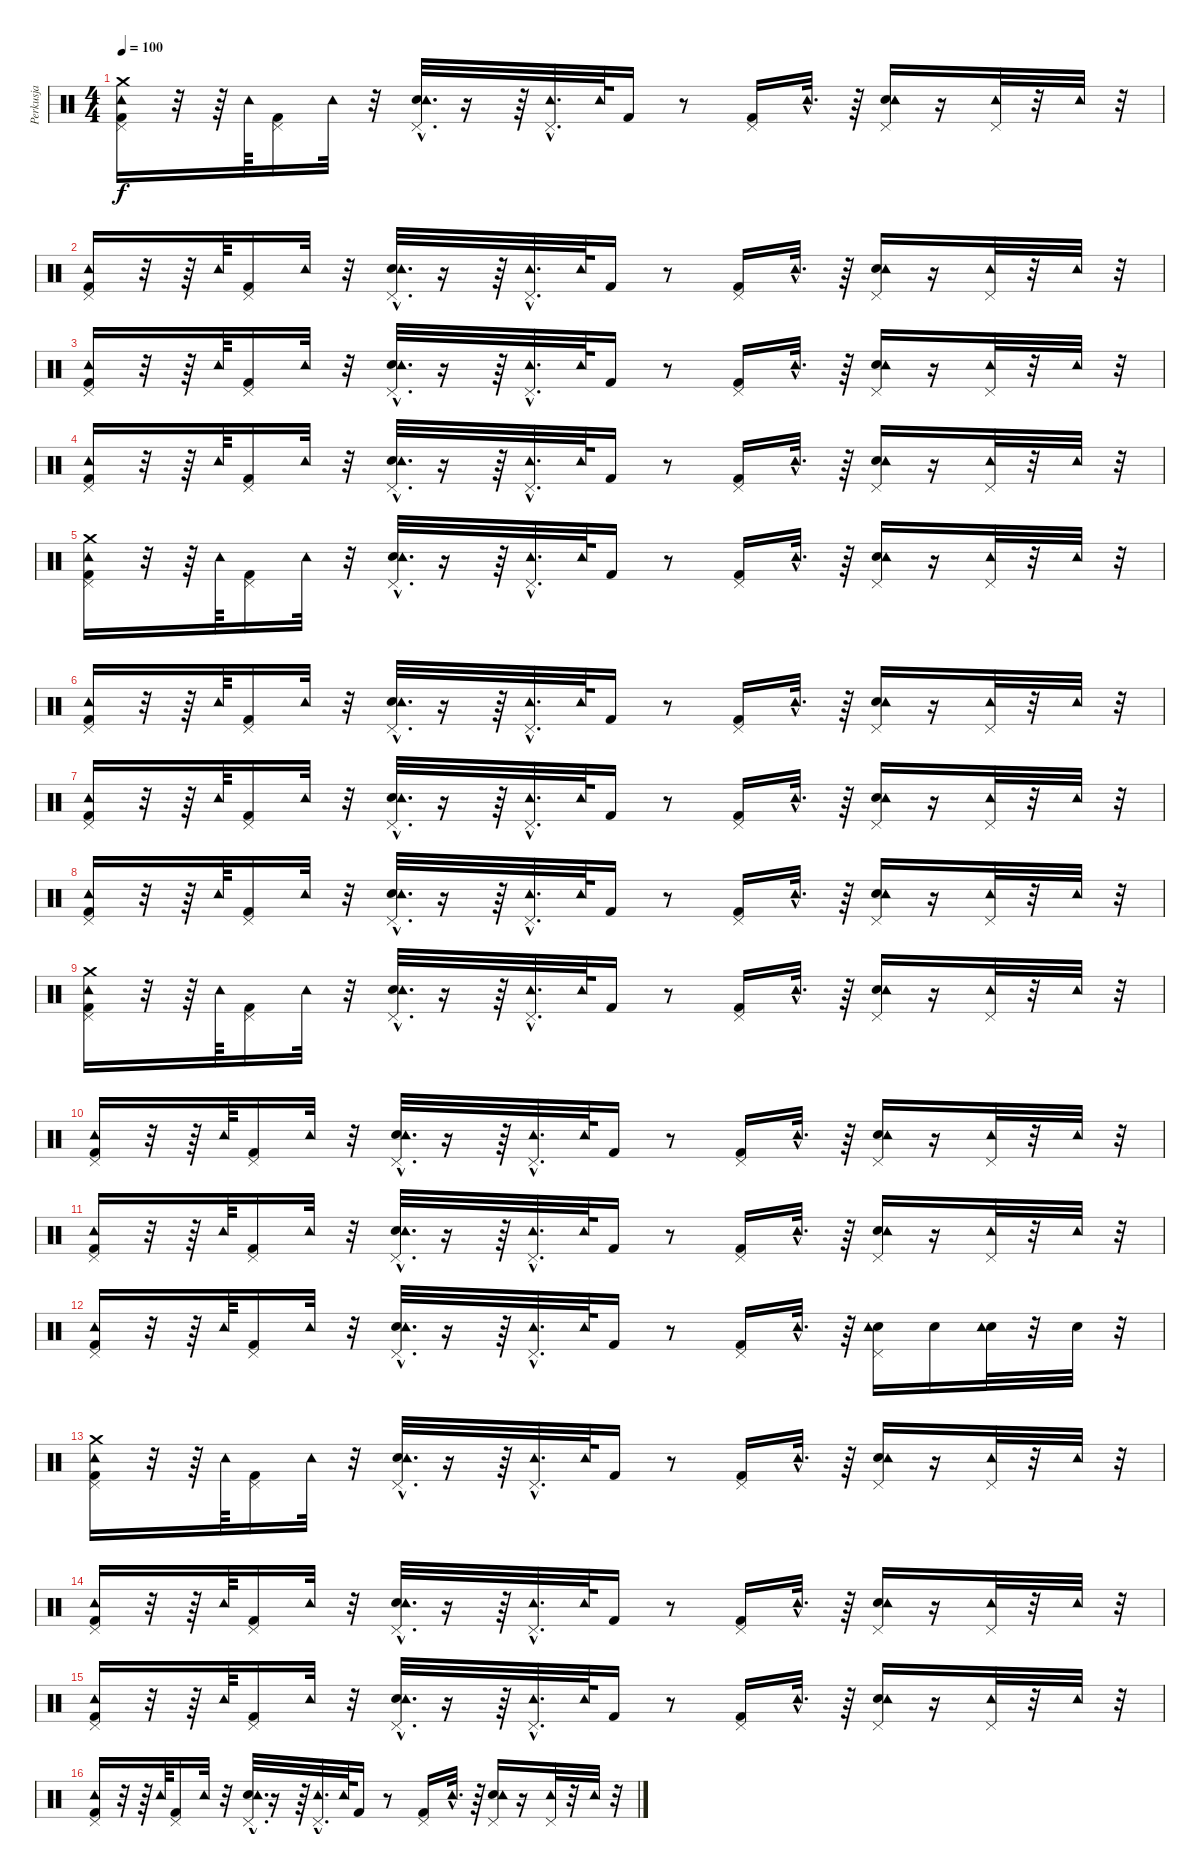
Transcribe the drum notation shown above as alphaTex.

\track ("Perkusja" "Perkusja") {instrument percussion}
\staff {score}
\articulation defaults
\ts (4 4)
\tempo 100
\clef neutral
\ks c
("Tambourine (hit)" "Pedal Hi-Hat (hit)" "Kick (hit) 2" "Crash medium (hit)").16{dy f} r.32 r.64 "Tambourine (hit)".64 ("Kick (hit) 2" "Pedal Hi-Hat (hit)").16 "Tambourine (hit)".32 r.32 ("Electric Snare (hit)"{hac} "Pedal Hi-Hat (hit)"{hac} "Tambourine (hit)"{hac}).32{d} r.16 r.64 ("Pedal Hi-Hat (hit)"{hac} "Tambourine (hit)"{hac}).32{d} "Tambourine (hit)".64 "Kick (hit) 2".16 r.8 ("Kick (hit) 2" "Pedal Hi-Hat (hit)").16 "Tambourine (hit)"{hac}.32{d} r.64 ("Electric Snare (hit)" "Pedal Hi-Hat (hit)" "Tambourine (hit)").16 r.16 ("Pedal Hi-Hat (hit)" "Tambourine (hit)").32 r.32 "Tambourine (hit)".32 r.32 |
("Tambourine (hit)" "Pedal Hi-Hat (hit)" "Kick (hit) 2").16 r.32 r.64 "Tambourine (hit)".64 ("Kick (hit) 2" "Pedal Hi-Hat (hit)").16 "Tambourine (hit)".32 r.32 ("Electric Snare (hit)"{hac} "Pedal Hi-Hat (hit)"{hac} "Tambourine (hit)"{hac}).32{d} r.16 r.64 ("Pedal Hi-Hat (hit)"{hac} "Tambourine (hit)"{hac}).32{d} "Tambourine (hit)".64 "Kick (hit) 2".16 r.8 ("Kick (hit) 2" "Pedal Hi-Hat (hit)").16 "Tambourine (hit)"{hac}.32{d} r.64 ("Electric Snare (hit)" "Pedal Hi-Hat (hit)" "Tambourine (hit)").16 r.16 ("Pedal Hi-Hat (hit)" "Tambourine (hit)").32 r.32 "Tambourine (hit)".32 r.32 |
("Tambourine (hit)" "Pedal Hi-Hat (hit)" "Kick (hit) 2").16 r.32 r.64 "Tambourine (hit)".64 ("Kick (hit) 2" "Pedal Hi-Hat (hit)").16 "Tambourine (hit)".32 r.32 ("Electric Snare (hit)"{hac} "Pedal Hi-Hat (hit)"{hac} "Tambourine (hit)"{hac}).32{d} r.16 r.64 ("Pedal Hi-Hat (hit)"{hac} "Tambourine (hit)"{hac}).32{d} "Tambourine (hit)".64 "Kick (hit) 2".16 r.8 ("Kick (hit) 2" "Pedal Hi-Hat (hit)").16 "Tambourine (hit)"{hac}.32{d} r.64 ("Electric Snare (hit)" "Pedal Hi-Hat (hit)" "Tambourine (hit)").16 r.16 ("Pedal Hi-Hat (hit)" "Tambourine (hit)").32 r.32 "Tambourine (hit)".32 r.32 |
("Tambourine (hit)" "Pedal Hi-Hat (hit)" "Kick (hit) 2").16 r.32 r.64 "Tambourine (hit)".64 ("Kick (hit) 2" "Pedal Hi-Hat (hit)").16 "Tambourine (hit)".32 r.32 ("Electric Snare (hit)"{hac} "Pedal Hi-Hat (hit)"{hac} "Tambourine (hit)"{hac}).32{d} r.16 r.64 ("Pedal Hi-Hat (hit)"{hac} "Tambourine (hit)"{hac}).32{d} "Tambourine (hit)".64 "Kick (hit) 2".16 r.8 ("Kick (hit) 2" "Pedal Hi-Hat (hit)").16 "Tambourine (hit)"{hac}.32{d} r.64 ("Electric Snare (hit)" "Pedal Hi-Hat (hit)" "Tambourine (hit)").16 r.16 ("Pedal Hi-Hat (hit)" "Tambourine (hit)").32 r.32 "Tambourine (hit)".32 r.32 |
("Tambourine (hit)" "Pedal Hi-Hat (hit)" "Kick (hit) 2" "Crash medium (hit)").16 r.32 r.64 "Tambourine (hit)".64 ("Kick (hit) 2" "Pedal Hi-Hat (hit)").16 "Tambourine (hit)".32 r.32 ("Electric Snare (hit)"{hac} "Pedal Hi-Hat (hit)"{hac} "Tambourine (hit)"{hac}).32{d} r.16 r.64 ("Pedal Hi-Hat (hit)"{hac} "Tambourine (hit)"{hac}).32{d} "Tambourine (hit)".64 "Kick (hit) 2".16 r.8 ("Kick (hit) 2" "Pedal Hi-Hat (hit)").16 "Tambourine (hit)"{hac}.32{d} r.64 ("Electric Snare (hit)" "Pedal Hi-Hat (hit)" "Tambourine (hit)").16 r.16 ("Pedal Hi-Hat (hit)" "Tambourine (hit)").32 r.32 "Tambourine (hit)".32 r.32 |
("Tambourine (hit)" "Pedal Hi-Hat (hit)" "Kick (hit) 2").16 r.32 r.64 "Tambourine (hit)".64 ("Kick (hit) 2" "Pedal Hi-Hat (hit)").16 "Tambourine (hit)".32 r.32 ("Electric Snare (hit)"{hac} "Pedal Hi-Hat (hit)"{hac} "Tambourine (hit)"{hac}).32{d} r.16 r.64 ("Pedal Hi-Hat (hit)"{hac} "Tambourine (hit)"{hac}).32{d} "Tambourine (hit)".64 "Kick (hit) 2".16 r.8 ("Kick (hit) 2" "Pedal Hi-Hat (hit)").16 "Tambourine (hit)"{hac}.32{d} r.64 ("Electric Snare (hit)" "Pedal Hi-Hat (hit)" "Tambourine (hit)").16 r.16 ("Pedal Hi-Hat (hit)" "Tambourine (hit)").32 r.32 "Tambourine (hit)".32 r.32 |
("Tambourine (hit)" "Pedal Hi-Hat (hit)" "Kick (hit) 2").16 r.32 r.64 "Tambourine (hit)".64 ("Kick (hit) 2" "Pedal Hi-Hat (hit)").16 "Tambourine (hit)".32 r.32 ("Electric Snare (hit)"{hac} "Pedal Hi-Hat (hit)"{hac} "Tambourine (hit)"{hac}).32{d} r.16 r.64 ("Pedal Hi-Hat (hit)"{hac} "Tambourine (hit)"{hac}).32{d} "Tambourine (hit)".64 "Kick (hit) 2".16 r.8 ("Kick (hit) 2" "Pedal Hi-Hat (hit)").16 "Tambourine (hit)"{hac}.32{d} r.64 ("Electric Snare (hit)" "Pedal Hi-Hat (hit)" "Tambourine (hit)").16 r.16 ("Pedal Hi-Hat (hit)" "Tambourine (hit)").32 r.32 "Tambourine (hit)".32 r.32 |
("Tambourine (hit)" "Pedal Hi-Hat (hit)" "Kick (hit) 2").16 r.32 r.64 "Tambourine (hit)".64 ("Kick (hit) 2" "Pedal Hi-Hat (hit)").16 "Tambourine (hit)".32 r.32 ("Electric Snare (hit)"{hac} "Pedal Hi-Hat (hit)"{hac} "Tambourine (hit)"{hac}).32{d} r.16 r.64 ("Pedal Hi-Hat (hit)"{hac} "Tambourine (hit)"{hac}).32{d} "Tambourine (hit)".64 "Kick (hit) 2".16 r.8 ("Kick (hit) 2" "Pedal Hi-Hat (hit)").16 "Tambourine (hit)"{hac}.32{d} r.64 ("Electric Snare (hit)" "Pedal Hi-Hat (hit)" "Tambourine (hit)").16 r.16 ("Pedal Hi-Hat (hit)" "Tambourine (hit)").32 r.32 "Tambourine (hit)".32 r.32 |
("Tambourine (hit)" "Pedal Hi-Hat (hit)" "Kick (hit) 2" "Crash medium (hit)").16 r.32 r.64 "Tambourine (hit)".64 ("Kick (hit) 2" "Pedal Hi-Hat (hit)").16 "Tambourine (hit)".32 r.32 ("Electric Snare (hit)"{hac} "Pedal Hi-Hat (hit)"{hac} "Tambourine (hit)"{hac}).32{d} r.16 r.64 ("Pedal Hi-Hat (hit)"{hac} "Tambourine (hit)"{hac}).32{d} "Tambourine (hit)".64 "Kick (hit) 2".16 r.8 ("Kick (hit) 2" "Pedal Hi-Hat (hit)").16 "Tambourine (hit)"{hac}.32{d} r.64 ("Electric Snare (hit)" "Pedal Hi-Hat (hit)" "Tambourine (hit)").16 r.16 ("Pedal Hi-Hat (hit)" "Tambourine (hit)").32 r.32 "Tambourine (hit)".32 r.32 |
("Tambourine (hit)" "Pedal Hi-Hat (hit)" "Kick (hit) 2").16 r.32 r.64 "Tambourine (hit)".64 ("Kick (hit) 2" "Pedal Hi-Hat (hit)").16 "Tambourine (hit)".32 r.32 ("Electric Snare (hit)"{hac} "Pedal Hi-Hat (hit)"{hac} "Tambourine (hit)"{hac}).32{d} r.16 r.64 ("Pedal Hi-Hat (hit)"{hac} "Tambourine (hit)"{hac}).32{d} "Tambourine (hit)".64 "Kick (hit) 2".16 r.8 ("Kick (hit) 2" "Pedal Hi-Hat (hit)").16 "Tambourine (hit)"{hac}.32{d} r.64 ("Electric Snare (hit)" "Pedal Hi-Hat (hit)" "Tambourine (hit)").16 r.16 ("Pedal Hi-Hat (hit)" "Tambourine (hit)").32 r.32 "Tambourine (hit)".32 r.32 |
("Tambourine (hit)" "Pedal Hi-Hat (hit)" "Kick (hit) 2").16 r.32 r.64 "Tambourine (hit)".64 ("Kick (hit) 2" "Pedal Hi-Hat (hit)").16 "Tambourine (hit)".32 r.32 ("Electric Snare (hit)"{hac} "Pedal Hi-Hat (hit)"{hac} "Tambourine (hit)"{hac}).32{d} r.16 r.64 ("Pedal Hi-Hat (hit)"{hac} "Tambourine (hit)"{hac}).32{d} "Tambourine (hit)".64 "Kick (hit) 2".16 r.8 ("Kick (hit) 2" "Pedal Hi-Hat (hit)").16 "Tambourine (hit)"{hac}.32{d} r.64 ("Electric Snare (hit)" "Pedal Hi-Hat (hit)" "Tambourine (hit)").16 r.16 ("Pedal Hi-Hat (hit)" "Tambourine (hit)").32 r.32 "Tambourine (hit)".32 r.32 |
("Tambourine (hit)" "Pedal Hi-Hat (hit)" "Kick (hit) 2").16 r.32 r.64 "Tambourine (hit)".64 ("Kick (hit) 2" "Pedal Hi-Hat (hit)").16 "Tambourine (hit)".32 r.32 ("Electric Snare (hit)"{hac} "Pedal Hi-Hat (hit)"{hac} "Tambourine (hit)"{hac}).32{d} r.16 r.64 ("Pedal Hi-Hat (hit)"{hac} "Tambourine (hit)"{hac}).32{d} "Tambourine (hit)".64 "Kick (hit) 2".16 r.8 ("Kick (hit) 2" "Pedal Hi-Hat (hit)").16 "Tambourine (hit)"{hac}.32{d} r.64 ("Electric Snare (hit)" "Pedal Hi-Hat (hit)" "Tambourine (hit)").16 "Electric Snare (hit)".16 ("Electric Snare (hit)" "Tambourine (hit)").32 r.32 "Electric Snare (hit)".32 r.32 |
("Tambourine (hit)" "Pedal Hi-Hat (hit)" "Kick (hit) 2" "Crash medium (hit)").16 r.32 r.64 "Tambourine (hit)".64 ("Kick (hit) 2" "Pedal Hi-Hat (hit)").16 "Tambourine (hit)".32 r.32 ("Electric Snare (hit)"{hac} "Pedal Hi-Hat (hit)"{hac} "Tambourine (hit)"{hac}).32{d} r.16 r.64 ("Pedal Hi-Hat (hit)"{hac} "Tambourine (hit)"{hac}).32{d} "Tambourine (hit)".64 "Kick (hit) 2".16 r.8 ("Kick (hit) 2" "Pedal Hi-Hat (hit)").16 "Tambourine (hit)"{hac}.32{d} r.64 ("Electric Snare (hit)" "Pedal Hi-Hat (hit)" "Tambourine (hit)").16 r.16 ("Pedal Hi-Hat (hit)" "Tambourine (hit)").32 r.32 "Tambourine (hit)".32 r.32 |
("Tambourine (hit)" "Pedal Hi-Hat (hit)" "Kick (hit) 2").16 r.32 r.64 "Tambourine (hit)".64 ("Kick (hit) 2" "Pedal Hi-Hat (hit)").16 "Tambourine (hit)".32 r.32 ("Electric Snare (hit)"{hac} "Pedal Hi-Hat (hit)"{hac} "Tambourine (hit)"{hac}).32{d} r.16 r.64 ("Pedal Hi-Hat (hit)"{hac} "Tambourine (hit)"{hac}).32{d} "Tambourine (hit)".64 "Kick (hit) 2".16 r.8 ("Kick (hit) 2" "Pedal Hi-Hat (hit)").16 "Tambourine (hit)"{hac}.32{d} r.64 ("Electric Snare (hit)" "Pedal Hi-Hat (hit)" "Tambourine (hit)").16 r.16 ("Pedal Hi-Hat (hit)" "Tambourine (hit)").32 r.32 "Tambourine (hit)".32 r.32 |
("Tambourine (hit)" "Pedal Hi-Hat (hit)" "Kick (hit) 2").16 r.32 r.64 "Tambourine (hit)".64 ("Kick (hit) 2" "Pedal Hi-Hat (hit)").16 "Tambourine (hit)".32 r.32 ("Electric Snare (hit)"{hac} "Pedal Hi-Hat (hit)"{hac} "Tambourine (hit)"{hac}).32{d} r.16 r.64 ("Pedal Hi-Hat (hit)"{hac} "Tambourine (hit)"{hac}).32{d} "Tambourine (hit)".64 "Kick (hit) 2".16 r.8 ("Kick (hit) 2" "Pedal Hi-Hat (hit)").16 "Tambourine (hit)"{hac}.32{d} r.64 ("Electric Snare (hit)" "Pedal Hi-Hat (hit)" "Tambourine (hit)").16 r.16 ("Pedal Hi-Hat (hit)" "Tambourine (hit)").32 r.32 "Tambourine (hit)".32 r.32 |
("Tambourine (hit)" "Pedal Hi-Hat (hit)" "Kick (hit) 2").16 r.32 r.64 "Tambourine (hit)".64 ("Kick (hit) 2" "Pedal Hi-Hat (hit)").16 "Tambourine (hit)".32 r.32 ("Electric Snare (hit)"{hac} "Pedal Hi-Hat (hit)"{hac} "Tambourine (hit)"{hac}).32{d} r.16 r.64 ("Pedal Hi-Hat (hit)"{hac} "Tambourine (hit)"{hac}).32{d} "Tambourine (hit)".64 "Kick (hit) 2".16 r.8 ("Kick (hit) 2" "Pedal Hi-Hat (hit)").16 "Tambourine (hit)"{hac}.32{d} r.64 ("Electric Snare (hit)" "Pedal Hi-Hat (hit)" "Tambourine (hit)").16 r.16 ("Pedal Hi-Hat (hit)" "Tambourine (hit)").32 r.32 "Tambourine (hit)".32 r.32
